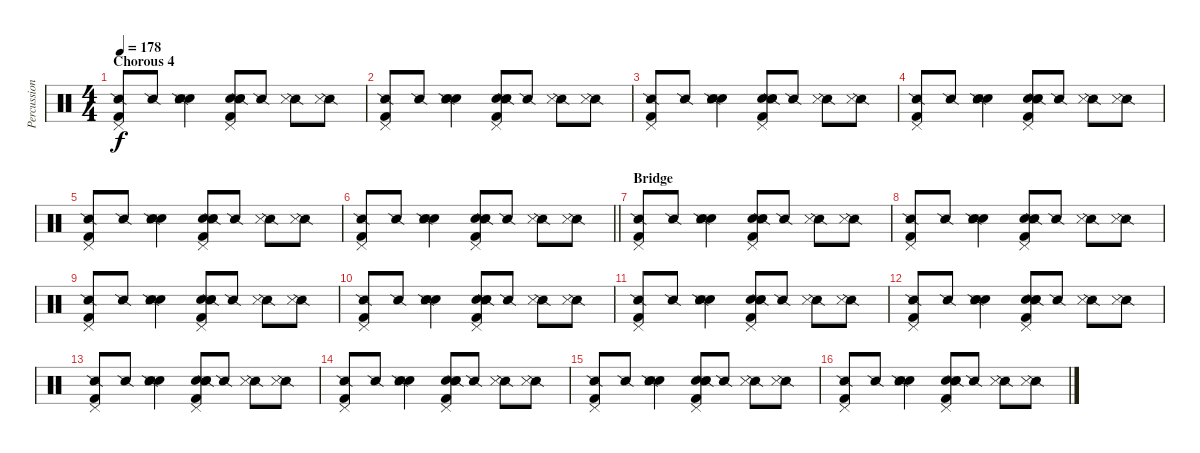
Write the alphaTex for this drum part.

\track ("Percussion" "Percussion") {instrument percussion}
\staff {score}
\articulation defaults
\ts (4 4)
\section ("" "Chorous 4")
\tempo 178
\clef neutral
\ks c
("Pedal Hi-Hat (hit)" "Kick (hit) 2" "Snare (side stick) 2").8{dy f} "Snare (side stick) 2".8 ("Hand Clap (hit)" "Hand Clap (hit)" "Snare (side stick) 2" "Metronome (hit)").4 ("Pedal Hi-Hat (hit)" "Hand Clap (hit)" "Hand Clap (hit)" "Kick (hit) 2" "Snare (side stick) 2").8 "Snare (side stick) 2".8 ("Snare (side stick) 2" "Metronome (hit)").8 ("Snare (side stick) 2" "Metronome (hit)").8 |
("Pedal Hi-Hat (hit)" "Kick (hit) 2" "Snare (side stick) 2").8 "Snare (side stick) 2".8 ("Hand Clap (hit)" "Hand Clap (hit)" "Snare (side stick) 2" "Metronome (hit)").4 ("Pedal Hi-Hat (hit)" "Hand Clap (hit)" "Hand Clap (hit)" "Kick (hit) 2" "Snare (side stick) 2").8 "Snare (side stick) 2".8 ("Snare (side stick) 2" "Metronome (hit)").8 ("Snare (side stick) 2" "Metronome (hit)").8 |
("Pedal Hi-Hat (hit)" "Kick (hit) 2" "Snare (side stick) 2").8 "Snare (side stick) 2".8 ("Hand Clap (hit)" "Hand Clap (hit)" "Snare (side stick) 2" "Metronome (hit)").4 ("Pedal Hi-Hat (hit)" "Hand Clap (hit)" "Hand Clap (hit)" "Kick (hit) 2" "Snare (side stick) 2").8 "Snare (side stick) 2".8 ("Snare (side stick) 2" "Metronome (hit)").8 ("Snare (side stick) 2" "Metronome (hit)").8 |
("Pedal Hi-Hat (hit)" "Kick (hit) 2" "Snare (side stick) 2").8 "Snare (side stick) 2".8 ("Hand Clap (hit)" "Hand Clap (hit)" "Snare (side stick) 2" "Metronome (hit)").4 ("Pedal Hi-Hat (hit)" "Hand Clap (hit)" "Hand Clap (hit)" "Kick (hit) 2" "Snare (side stick) 2").8 "Snare (side stick) 2".8 ("Snare (side stick) 2" "Metronome (hit)").8 ("Snare (side stick) 2" "Metronome (hit)").8 |
("Pedal Hi-Hat (hit)" "Kick (hit) 2" "Snare (side stick) 2").8 "Snare (side stick) 2".8 ("Hand Clap (hit)" "Hand Clap (hit)" "Snare (side stick) 2" "Metronome (hit)").4 ("Pedal Hi-Hat (hit)" "Hand Clap (hit)" "Hand Clap (hit)" "Kick (hit) 2" "Snare (side stick) 2").8 "Snare (side stick) 2".8 ("Snare (side stick) 2" "Metronome (hit)").8 ("Snare (side stick) 2" "Metronome (hit)").8 |
\barLineRight lightlight
("Pedal Hi-Hat (hit)" "Kick (hit) 2" "Snare (side stick) 2").8 "Snare (side stick) 2".8 ("Hand Clap (hit)" "Hand Clap (hit)" "Snare (side stick) 2" "Metronome (hit)").4 ("Pedal Hi-Hat (hit)" "Hand Clap (hit)" "Hand Clap (hit)" "Kick (hit) 2" "Snare (side stick) 2").8 "Snare (side stick) 2".8 ("Snare (side stick) 2" "Metronome (hit)").8 ("Snare (side stick) 2" "Metronome (hit)").8 |
\section ("" "Bridge")
("Pedal Hi-Hat (hit)" "Kick (hit) 2" "Snare (side stick) 2").8 "Snare (side stick) 2".8 ("Hand Clap (hit)" "Hand Clap (hit)" "Snare (side stick) 2" "Metronome (hit)").4 ("Pedal Hi-Hat (hit)" "Hand Clap (hit)" "Hand Clap (hit)" "Kick (hit) 2" "Snare (side stick) 2").8 "Snare (side stick) 2".8 ("Snare (side stick) 2" "Metronome (hit)").8 ("Snare (side stick) 2" "Metronome (hit)").8 |
("Pedal Hi-Hat (hit)" "Kick (hit) 2" "Snare (side stick) 2").8 "Snare (side stick) 2".8 ("Hand Clap (hit)" "Hand Clap (hit)" "Snare (side stick) 2" "Metronome (hit)").4 ("Pedal Hi-Hat (hit)" "Hand Clap (hit)" "Hand Clap (hit)" "Kick (hit) 2" "Snare (side stick) 2").8 "Snare (side stick) 2".8 ("Snare (side stick) 2" "Metronome (hit)").8 ("Snare (side stick) 2" "Metronome (hit)").8 |
("Pedal Hi-Hat (hit)" "Kick (hit) 2" "Snare (side stick) 2").8 "Snare (side stick) 2".8 ("Hand Clap (hit)" "Hand Clap (hit)" "Snare (side stick) 2" "Metronome (hit)").4 ("Pedal Hi-Hat (hit)" "Hand Clap (hit)" "Hand Clap (hit)" "Kick (hit) 2" "Snare (side stick) 2").8 "Snare (side stick) 2".8 ("Snare (side stick) 2" "Metronome (hit)").8 ("Snare (side stick) 2" "Metronome (hit)").8 |
("Pedal Hi-Hat (hit)" "Kick (hit) 2" "Snare (side stick) 2").8 "Snare (side stick) 2".8 ("Hand Clap (hit)" "Hand Clap (hit)" "Snare (side stick) 2" "Metronome (hit)").4 ("Pedal Hi-Hat (hit)" "Hand Clap (hit)" "Hand Clap (hit)" "Kick (hit) 2" "Snare (side stick) 2").8 "Snare (side stick) 2".8 ("Snare (side stick) 2" "Metronome (hit)").8 ("Snare (side stick) 2" "Metronome (hit)").8 |
("Pedal Hi-Hat (hit)" "Kick (hit) 2" "Snare (side stick) 2").8 "Snare (side stick) 2".8 ("Hand Clap (hit)" "Hand Clap (hit)" "Snare (side stick) 2" "Metronome (hit)").4 ("Pedal Hi-Hat (hit)" "Hand Clap (hit)" "Hand Clap (hit)" "Kick (hit) 2" "Snare (side stick) 2").8 "Snare (side stick) 2".8 ("Snare (side stick) 2" "Metronome (hit)").8 ("Snare (side stick) 2" "Metronome (hit)").8 |
("Pedal Hi-Hat (hit)" "Kick (hit) 2" "Snare (side stick) 2").8 "Snare (side stick) 2".8 ("Hand Clap (hit)" "Hand Clap (hit)" "Snare (side stick) 2" "Metronome (hit)").4 ("Pedal Hi-Hat (hit)" "Hand Clap (hit)" "Hand Clap (hit)" "Kick (hit) 2" "Snare (side stick) 2").8 "Snare (side stick) 2".8 ("Snare (side stick) 2" "Metronome (hit)").8 ("Snare (side stick) 2" "Metronome (hit)").8 |
("Pedal Hi-Hat (hit)" "Kick (hit) 2" "Snare (side stick) 2").8 "Snare (side stick) 2".8 ("Hand Clap (hit)" "Hand Clap (hit)" "Snare (side stick) 2" "Metronome (hit)").4 ("Pedal Hi-Hat (hit)" "Hand Clap (hit)" "Hand Clap (hit)" "Kick (hit) 2" "Snare (side stick) 2").8 "Snare (side stick) 2".8 ("Snare (side stick) 2" "Metronome (hit)").8 ("Snare (side stick) 2" "Metronome (hit)").8 |
("Pedal Hi-Hat (hit)" "Kick (hit) 2" "Snare (side stick) 2").8 "Snare (side stick) 2".8 ("Hand Clap (hit)" "Hand Clap (hit)" "Snare (side stick) 2" "Metronome (hit)").4 ("Pedal Hi-Hat (hit)" "Hand Clap (hit)" "Hand Clap (hit)" "Kick (hit) 2" "Snare (side stick) 2").8 "Snare (side stick) 2".8 ("Snare (side stick) 2" "Metronome (hit)").8 ("Snare (side stick) 2" "Metronome (hit)").8 |
("Pedal Hi-Hat (hit)" "Kick (hit) 2" "Snare (side stick) 2").8 "Snare (side stick) 2".8 ("Hand Clap (hit)" "Hand Clap (hit)" "Snare (side stick) 2" "Metronome (hit)").4 ("Pedal Hi-Hat (hit)" "Hand Clap (hit)" "Hand Clap (hit)" "Kick (hit) 2" "Snare (side stick) 2").8 "Snare (side stick) 2".8 ("Snare (side stick) 2" "Metronome (hit)").8 ("Snare (side stick) 2" "Metronome (hit)").8 |
("Pedal Hi-Hat (hit)" "Kick (hit) 2" "Snare (side stick) 2").8 "Snare (side stick) 2".8 ("Hand Clap (hit)" "Hand Clap (hit)" "Snare (side stick) 2" "Metronome (hit)").4 ("Pedal Hi-Hat (hit)" "Hand Clap (hit)" "Hand Clap (hit)" "Kick (hit) 2" "Snare (side stick) 2").8 "Snare (side stick) 2".8 ("Snare (side stick) 2" "Metronome (hit)").8 ("Snare (side stick) 2" "Metronome (hit)").8
